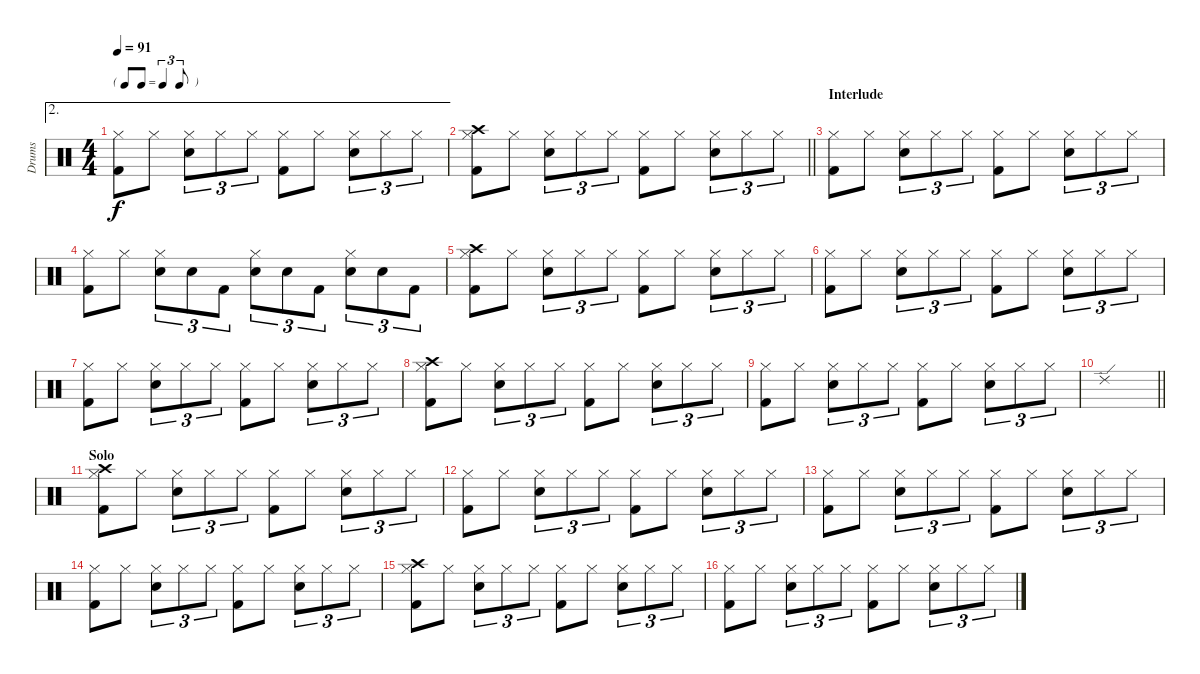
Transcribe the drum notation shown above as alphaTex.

\track ("Drums" "Drums") {instrument percussion}
\staff {score}
\articulation defaults
\ae 2
\ts (4 4)
\tf triplet8th
\tempo 91
\clef neutral
\ks c
("Hi-Hat (closed)" "Kick (hit) 2").8{dy f} "Hi-Hat (closed)".8 ("Hi-Hat (closed)" "Snare (hit) 2").8{tu (3 2)} "Hi-Hat (closed)".8{tu (3 2)} "Hi-Hat (closed)".8{tu (3 2)} ("Hi-Hat (closed)" "Kick (hit) 2").8 "Hi-Hat (closed)".8 ("Hi-Hat (closed)" "Snare (hit) 2").8{tu (3 2)} "Hi-Hat (closed)".8{tu (3 2)} "Hi-Hat (closed)".8{tu (3 2)} |
\barLineRight lightlight
("Crash high (hit)" "Hi-Hat (closed)" "Kick (hit) 2").8 "Hi-Hat (closed)".8 ("Hi-Hat (closed)" "Snare (hit) 2").8{tu (3 2)} "Hi-Hat (closed)".8{tu (3 2)} "Hi-Hat (closed)".8{tu (3 2)} ("Hi-Hat (closed)" "Kick (hit) 2").8 "Hi-Hat (closed)".8 ("Hi-Hat (closed)" "Snare (hit) 2").8{tu (3 2)} "Hi-Hat (closed)".8{tu (3 2)} "Hi-Hat (closed)".8{tu (3 2)} |
\section ("" "Interlude")
("Hi-Hat (closed)" "Kick (hit) 2").8 "Hi-Hat (closed)".8 ("Hi-Hat (closed)" "Snare (hit) 2").8{tu (3 2)} "Hi-Hat (closed)".8{tu (3 2)} "Hi-Hat (closed)".8{tu (3 2)} ("Hi-Hat (closed)" "Kick (hit) 2").8 "Hi-Hat (closed)".8 ("Hi-Hat (closed)" "Snare (hit) 2").8{tu (3 2)} "Hi-Hat (closed)".8{tu (3 2)} "Hi-Hat (closed)".8{tu (3 2)} |
("Hi-Hat (closed)" "Kick (hit) 2").8 "Hi-Hat (closed)".8 ("Hi-Hat (closed)" "Snare (hit) 2").8{tu (3 2)} "Snare (hit) 2".8{tu (3 2)} "Kick (hit) 2".8{tu (3 2)} ("Hi-Hat (closed)" "Snare (hit) 2").8{tu (3 2)} "Snare (hit) 2".8{tu (3 2)} "Kick (hit) 2".8{tu (3 2)} ("Hi-Hat (closed)" "Snare (hit) 2").8{tu (3 2)} "Snare (hit) 2".8{tu (3 2)} "Kick (hit) 2".8{tu (3 2)} |
("Crash high (hit)" "Hi-Hat (closed)" "Kick (hit) 2").8 "Hi-Hat (closed)".8 ("Hi-Hat (closed)" "Snare (hit) 2").8{tu (3 2)} "Hi-Hat (closed)".8{tu (3 2)} "Hi-Hat (closed)".8{tu (3 2)} ("Hi-Hat (closed)" "Kick (hit) 2").8 "Hi-Hat (closed)".8 ("Hi-Hat (closed)" "Snare (hit) 2").8{tu (3 2)} "Hi-Hat (closed)".8{tu (3 2)} "Hi-Hat (closed)".8{tu (3 2)} |
("Hi-Hat (closed)" "Kick (hit) 2").8 "Hi-Hat (closed)".8 ("Hi-Hat (closed)" "Snare (hit) 2").8{tu (3 2)} "Hi-Hat (closed)".8{tu (3 2)} "Hi-Hat (closed)".8{tu (3 2)} ("Hi-Hat (closed)" "Kick (hit) 2").8 "Hi-Hat (closed)".8 ("Hi-Hat (closed)" "Snare (hit) 2").8{tu (3 2)} "Hi-Hat (closed)".8{tu (3 2)} "Hi-Hat (closed)".8{tu (3 2)} |
("Hi-Hat (closed)" "Kick (hit) 2").8 "Hi-Hat (closed)".8 ("Hi-Hat (closed)" "Snare (hit) 2").8{tu (3 2)} "Hi-Hat (closed)".8{tu (3 2)} "Hi-Hat (closed)".8{tu (3 2)} ("Hi-Hat (closed)" "Kick (hit) 2").8 "Hi-Hat (closed)".8 ("Hi-Hat (closed)" "Snare (hit) 2").8{tu (3 2)} "Hi-Hat (closed)".8{tu (3 2)} "Hi-Hat (closed)".8{tu (3 2)} |
("Crash high (hit)" "Hi-Hat (closed)" "Kick (hit) 2").8 "Hi-Hat (closed)".8 ("Hi-Hat (closed)" "Snare (hit) 2").8{tu (3 2)} "Hi-Hat (closed)".8{tu (3 2)} "Hi-Hat (closed)".8{tu (3 2)} ("Hi-Hat (closed)" "Kick (hit) 2").8 "Hi-Hat (closed)".8 ("Hi-Hat (closed)" "Snare (hit) 2").8{tu (3 2)} "Hi-Hat (closed)".8{tu (3 2)} "Hi-Hat (closed)".8{tu (3 2)} |
("Hi-Hat (closed)" "Kick (hit) 2").8 "Hi-Hat (closed)".8 ("Hi-Hat (closed)" "Snare (hit) 2").8{tu (3 2)} "Hi-Hat (closed)".8{tu (3 2)} "Hi-Hat (closed)".8{tu (3 2)} ("Hi-Hat (closed)" "Kick (hit) 2").8 "Hi-Hat (closed)".8 ("Hi-Hat (closed)" "Snare (hit) 2").8{tu (3 2)} "Hi-Hat (closed)".8{tu (3 2)} "Hi-Hat (closed)".8{tu (3 2)} |
\barLineRight lightlight "Ride (edge) 2".1
|
\section ("" "Solo")
("Crash high (hit)" "Hi-Hat (closed)" "Kick (hit) 2").8 "Hi-Hat (closed)".8 ("Hi-Hat (closed)" "Snare (hit) 2").8{tu (3 2)} "Hi-Hat (closed)".8{tu (3 2)} "Hi-Hat (closed)".8{tu (3 2)} ("Hi-Hat (closed)" "Kick (hit) 2").8 "Hi-Hat (closed)".8 ("Hi-Hat (closed)" "Snare (hit) 2").8{tu (3 2)} "Hi-Hat (closed)".8{tu (3 2)} "Hi-Hat (closed)".8{tu (3 2)} |
("Hi-Hat (closed)" "Kick (hit) 2").8 "Hi-Hat (closed)".8 ("Hi-Hat (closed)" "Snare (hit) 2").8{tu (3 2)} "Hi-Hat (closed)".8{tu (3 2)} "Hi-Hat (closed)".8{tu (3 2)} ("Hi-Hat (closed)" "Kick (hit) 2").8 "Hi-Hat (closed)".8 ("Hi-Hat (closed)" "Snare (hit) 2").8{tu (3 2)} "Hi-Hat (closed)".8{tu (3 2)} "Hi-Hat (closed)".8{tu (3 2)} |
("Hi-Hat (closed)" "Kick (hit) 2").8 "Hi-Hat (closed)".8 ("Hi-Hat (closed)" "Snare (hit) 2").8{tu (3 2)} "Hi-Hat (closed)".8{tu (3 2)} "Hi-Hat (closed)".8{tu (3 2)} ("Hi-Hat (closed)" "Kick (hit) 2").8 "Hi-Hat (closed)".8 ("Hi-Hat (closed)" "Snare (hit) 2").8{tu (3 2)} "Hi-Hat (closed)".8{tu (3 2)} "Hi-Hat (closed)".8{tu (3 2)} |
("Hi-Hat (closed)" "Kick (hit) 2").8 "Hi-Hat (closed)".8 ("Hi-Hat (closed)" "Snare (hit) 2").8{tu (3 2)} "Hi-Hat (closed)".8{tu (3 2)} "Hi-Hat (closed)".8{tu (3 2)} ("Hi-Hat (closed)" "Kick (hit) 2").8 "Hi-Hat (closed)".8 ("Hi-Hat (closed)" "Snare (hit) 2").8{tu (3 2)} "Hi-Hat (closed)".8{tu (3 2)} "Hi-Hat (closed)".8{tu (3 2)} |
("Crash high (hit)" "Hi-Hat (closed)" "Kick (hit) 2").8 "Hi-Hat (closed)".8 ("Hi-Hat (closed)" "Snare (hit) 2").8{tu (3 2)} "Hi-Hat (closed)".8{tu (3 2)} "Hi-Hat (closed)".8{tu (3 2)} ("Hi-Hat (closed)" "Kick (hit) 2").8 "Hi-Hat (closed)".8 ("Hi-Hat (closed)" "Snare (hit) 2").8{tu (3 2)} "Hi-Hat (closed)".8{tu (3 2)} "Hi-Hat (closed)".8{tu (3 2)} |
("Hi-Hat (closed)" "Kick (hit) 2").8 "Hi-Hat (closed)".8 ("Hi-Hat (closed)" "Snare (hit) 2").8{tu (3 2)} "Hi-Hat (closed)".8{tu (3 2)} "Hi-Hat (closed)".8{tu (3 2)} ("Hi-Hat (closed)" "Kick (hit) 2").8 "Hi-Hat (closed)".8 ("Hi-Hat (closed)" "Snare (hit) 2").8{tu (3 2)} "Hi-Hat (closed)".8{tu (3 2)} "Hi-Hat (closed)".8{tu (3 2)}
